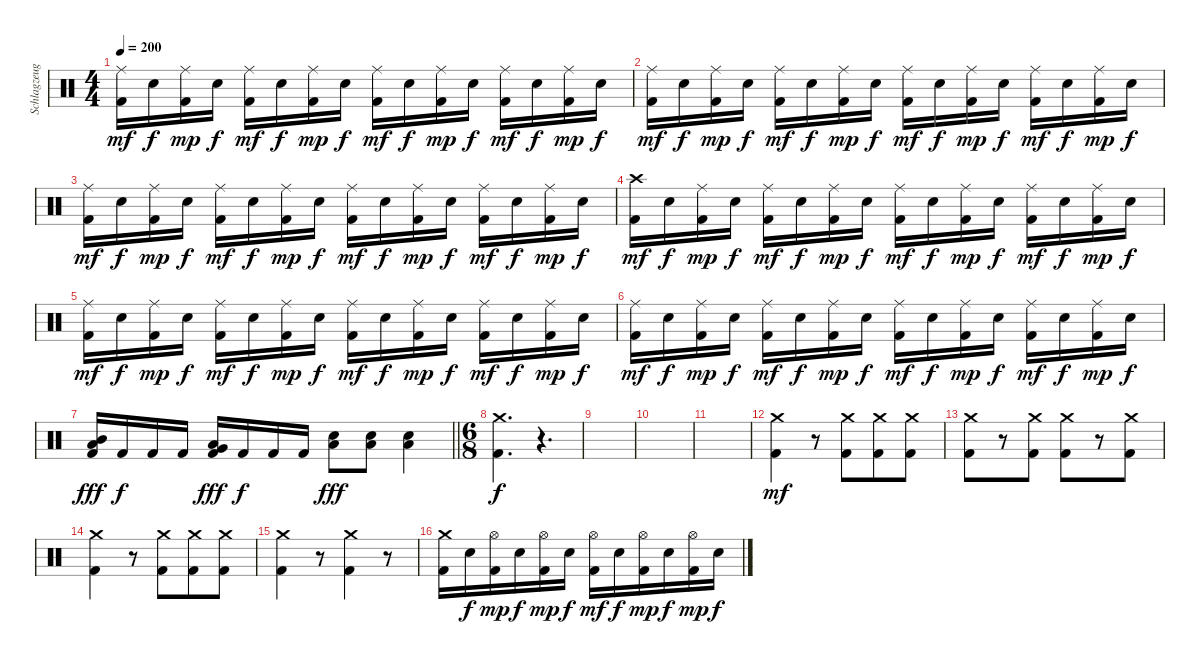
\track ("Schlagzeug" "Schlagzeug") {instrument percussion}
\staff {score}
\articulation defaults
\ts (4 4)
\tempo 200
\clef neutral
\ks c
("Ride (middle)" "Kick (hit) 2").16{dy mf} "Electric Snare (hit)".16{dy f} ("Ride (middle)" "Kick (hit) 2").16{dy mp} "Electric Snare (hit)".16{dy f} ("Ride (middle)" "Kick (hit) 2").16{dy mf} "Electric Snare (hit)".16{dy f} ("Ride (middle)" "Kick (hit) 2").16{dy mp} "Electric Snare (hit)".16{dy f} ("Ride (middle)" "Kick (hit) 2").16{dy mf} "Electric Snare (hit)".16{dy f} ("Ride (middle)" "Kick (hit) 2").16{dy mp} "Electric Snare (hit)".16{dy f} ("Ride (middle)" "Kick (hit) 2").16{dy mf} "Electric Snare (hit)".16{dy f} ("Ride (middle)" "Kick (hit) 2").16{dy mp} "Electric Snare (hit)".16{dy f} |
("Ride (middle)" "Kick (hit) 2").16{dy mf} "Electric Snare (hit)".16{dy f} ("Ride (middle)" "Kick (hit) 2").16{dy mp} "Electric Snare (hit)".16{dy f} ("Ride (middle)" "Kick (hit) 2").16{dy mf} "Electric Snare (hit)".16{dy f} ("Ride (middle)" "Kick (hit) 2").16{dy mp} "Electric Snare (hit)".16{dy f} ("Ride (middle)" "Kick (hit) 2").16{dy mf} "Electric Snare (hit)".16{dy f} ("Ride (middle)" "Kick (hit) 2").16{dy mp} "Electric Snare (hit)".16{dy f} ("Ride (middle)" "Kick (hit) 2").16{dy mf} "Electric Snare (hit)".16{dy f} ("Ride (middle)" "Kick (hit) 2").16{dy mp} "Electric Snare (hit)".16{dy f} |
("Ride (middle)" "Kick (hit) 2").16{dy mf} "Electric Snare (hit)".16{dy f} ("Ride (middle)" "Kick (hit) 2").16{dy mp} "Electric Snare (hit)".16{dy f} ("Ride (middle)" "Kick (hit) 2").16{dy mf} "Electric Snare (hit)".16{dy f} ("Ride (middle)" "Kick (hit) 2").16{dy mp} "Electric Snare (hit)".16{dy f} ("Ride (middle)" "Kick (hit) 2").16{dy mf} "Electric Snare (hit)".16{dy f} ("Ride (middle)" "Kick (hit) 2").16{dy mp} "Electric Snare (hit)".16{dy f} ("Ride (middle)" "Kick (hit) 2").16{dy mf} "Electric Snare (hit)".16{dy f} ("Ride (middle)" "Kick (hit) 2").16{dy mp} "Electric Snare (hit)".16{dy f} |
("Crash high (hit)" "Kick (hit) 2").16{dy mf} "Electric Snare (hit)".16{dy f} ("Ride (middle)" "Kick (hit) 2").16{dy mp} "Electric Snare (hit)".16{dy f} ("Ride (middle)" "Kick (hit) 2").16{dy mf} "Electric Snare (hit)".16{dy f} ("Ride (middle)" "Kick (hit) 2").16{dy mp} "Electric Snare (hit)".16{dy f} ("Ride (middle)" "Kick (hit) 2").16{dy mf} "Electric Snare (hit)".16{dy f} ("Ride (middle)" "Kick (hit) 2").16{dy mp} "Electric Snare (hit)".16{dy f} ("Ride (middle)" "Kick (hit) 2").16{dy mf} "Electric Snare (hit)".16{dy f} ("Ride (middle)" "Kick (hit) 2").16{dy mp} "Electric Snare (hit)".16{dy f} |
("Ride (middle)" "Kick (hit) 2").16{dy mf} "Electric Snare (hit)".16{dy f} ("Ride (middle)" "Kick (hit) 2").16{dy mp} "Electric Snare (hit)".16{dy f} ("Ride (middle)" "Kick (hit) 2").16{dy mf} "Electric Snare (hit)".16{dy f} ("Ride (middle)" "Kick (hit) 2").16{dy mp} "Electric Snare (hit)".16{dy f} ("Ride (middle)" "Kick (hit) 2").16{dy mf} "Electric Snare (hit)".16{dy f} ("Ride (middle)" "Kick (hit) 2").16{dy mp} "Electric Snare (hit)".16{dy f} ("Ride (middle)" "Kick (hit) 2").16{dy mf} "Electric Snare (hit)".16{dy f} ("Ride (middle)" "Kick (hit) 2").16{dy mp} "Electric Snare (hit)".16{dy f} |
("Ride (middle)" "Kick (hit) 2").16{dy mf} "Electric Snare (hit)".16{dy f} ("Ride (middle)" "Kick (hit) 2").16{dy mp} "Electric Snare (hit)".16{dy f} ("Ride (middle)" "Kick (hit) 2").16{dy mf} "Electric Snare (hit)".16{dy f} ("Ride (middle)" "Kick (hit) 2").16{dy mp} "Electric Snare (hit)".16{dy f} ("Ride (middle)" "Kick (hit) 2").16{dy mf} "Electric Snare (hit)".16{dy f} ("Ride (middle)" "Kick (hit) 2").16{dy mp} "Electric Snare (hit)".16{dy f} ("Ride (middle)" "Kick (hit) 2").16{dy mf} "Electric Snare (hit)".16{dy f} ("Ride (middle)" "Kick (hit) 2").16{dy mp} "Electric Snare (hit)".16{dy f} |
\barLineRight lightlight
("Mid Tom (hit)" "Low Tom (hit)" "Kick (hit) 2").16{bd 480 dy fff} "Kick (hit) 2".16{dy f} "Kick (hit) 2".16 "Kick (hit) 2".16 ("Low Tom (hit)" "Very Low Tom (hit)" "Kick (hit) 2").16{bd 480 dy fff} "Kick (hit) 2".16{dy f} "Kick (hit) 2".16 "Kick (hit) 2".16 ("Electric Snare (hit)" "Low Tom (hit)").8{bd 480 dy fff} ("Electric Snare (hit)" "Low Tom (hit)").8{bd 480} ("Electric Snare (hit)" "Low Tom (hit)").4{bd 480} |
\ts (6 8)
\section ("" "")
("Crash medium (hit)" "Kick (hit) 2").4{d dy f} r.4{d} |
|
|
|
("Crash medium (hit)" "Kick (hit) 2").4{dy mf} r.8 ("Crash medium (hit)" "Kick (hit) 2").8 ("Crash medium (hit)" "Kick (hit) 2").8 ("Crash medium (hit)" "Kick (hit) 2").8 |
("Crash medium (hit)" "Kick (hit) 2").8 r.8 ("Crash medium (hit)" "Kick (hit) 2").8 ("Crash medium (hit)" "Kick (hit) 2").8 r.8 ("Crash medium (hit)" "Kick (hit) 2").8 |
("Crash medium (hit)" "Kick (hit) 2").4 r.8 ("Crash medium (hit)" "Kick (hit) 2").8 ("Crash medium (hit)" "Kick (hit) 2").8 ("Crash medium (hit)" "Kick (hit) 2").8 |
("Crash medium (hit)" "Kick (hit) 2").4 r.8 ("Crash medium (hit)" "Kick (hit) 2").4 r.8 |
("Crash medium (hit)" "Kick (hit) 2").16 "Electric Snare (hit)".16{dy f} ("Hi-Hat (open)" "Kick (hit) 2").16{dy mp} "Electric Snare (hit)".16{dy f} ("Hi-Hat (open)" "Kick (hit) 2").16{dy mp} "Electric Snare (hit)".16{dy f} ("Hi-Hat (open)" "Kick (hit) 2").16{dy mf} "Electric Snare (hit)".16{dy f} ("Hi-Hat (open)" "Kick (hit) 2").16{dy mp} "Electric Snare (hit)".16{dy f} ("Hi-Hat (open)" "Kick (hit) 2").16{dy mp} "Electric Snare (hit)".16{dy f}
